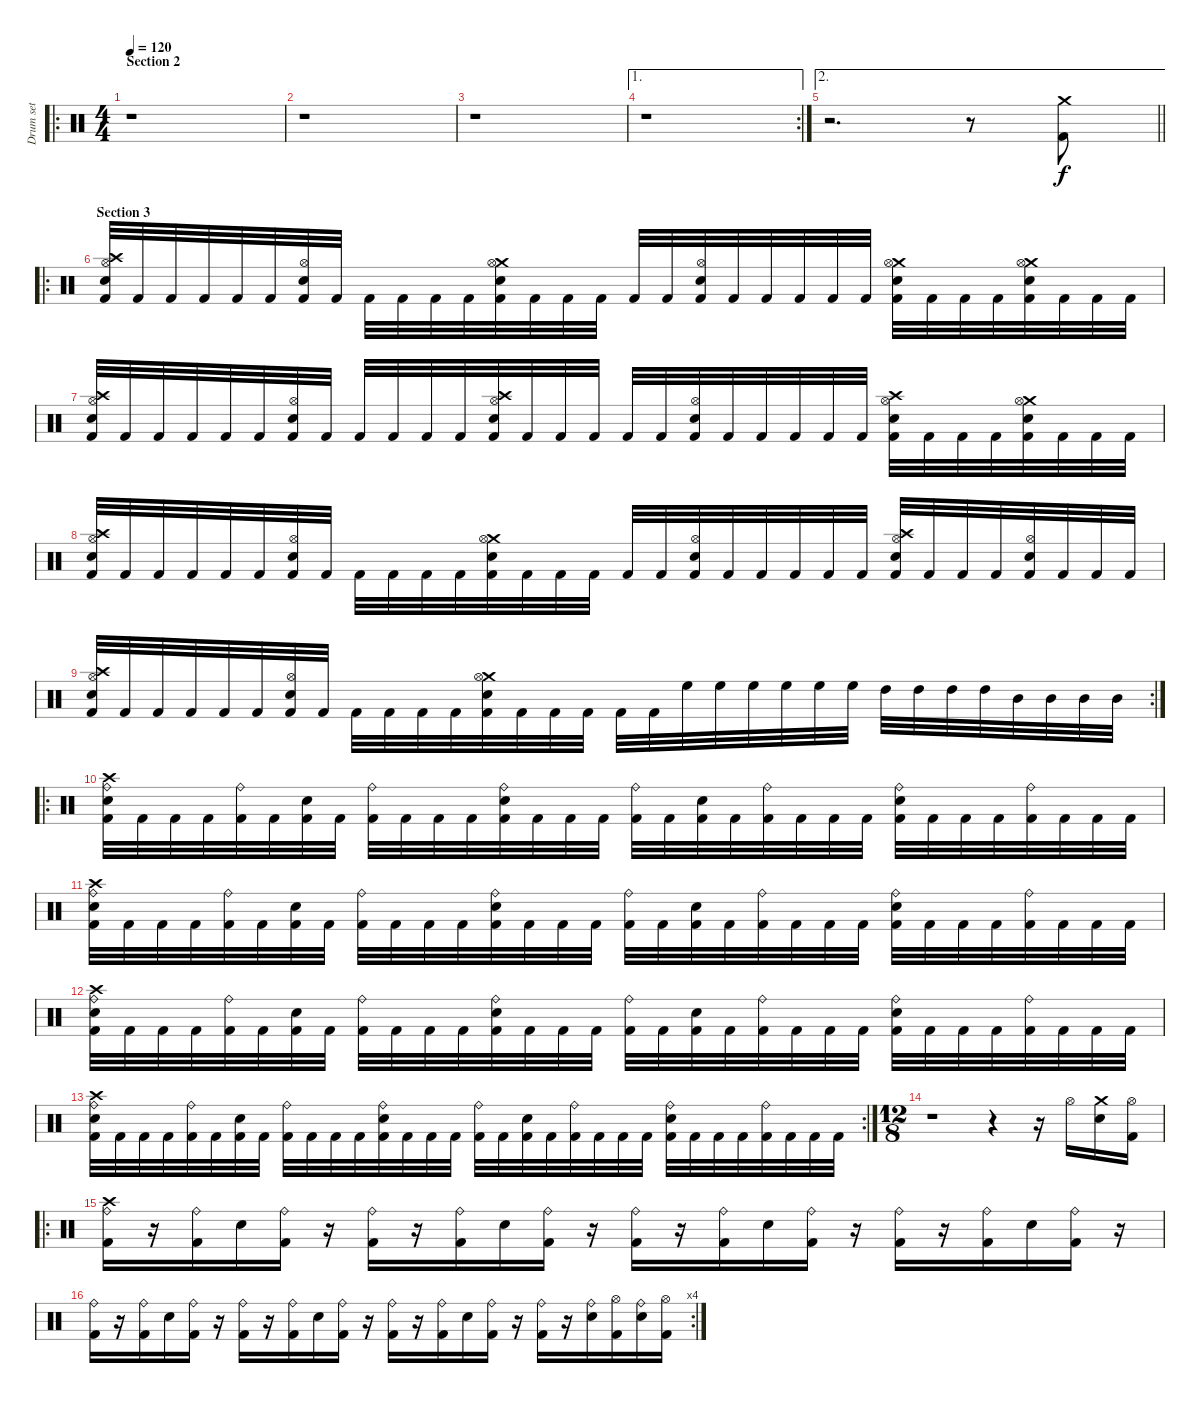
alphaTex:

\track ("Drum set" "Drum set") {instrument percussion}
\staff {score}
\articulation defaults
\ro
\ts (4 4)
\section ("" "Section 2")
\tempo 120
\clef neutral
\ks c
r.1{dy f} |
r.1 |
r.1 |
\ae 1
\rc 2
r.1 |
\ae 2
\barLineRight lightlight
r.2{d} r.8 ("Crash medium (hit)" "Kick (hit) 2").8 |
\ro
\section ("" "Section 3")
("Crash high (hit)" "Hi-Hat (open)" "Snare (hit) 2" "Kick (hit) 2").32 "Kick (hit) 2".32 "Kick (hit) 2".32 "Kick (hit) 2".32 "Kick (hit) 2".32 "Kick (hit) 2".32 ("Hi-Hat (open)" "Snare (hit) 2" "Kick (hit) 2").32 "Kick (hit) 2".32 "Kick (hit) 2".32 "Kick (hit) 2".32 "Kick (hit) 2".32 "Kick (hit) 2".32 ("Crash medium (hit)" "Hi-Hat (open)" "Snare (hit) 2" "Kick (hit) 2").32 "Kick (hit) 2".32 "Kick (hit) 2".32 "Kick (hit) 2".32 "Kick (hit) 2".32 "Kick (hit) 2".32 ("Hi-Hat (open)" "Snare (hit) 2" "Kick (hit) 2").32 "Kick (hit) 2".32 "Kick (hit) 2".32 "Kick (hit) 2".32 "Kick (hit) 2".32 "Kick (hit) 2".32 ("Crash medium (hit)" "Hi-Hat (open)" "Snare (hit) 2" "Kick (hit) 2").32 "Kick (hit) 2".32 "Kick (hit) 2".32 "Kick (hit) 2".32 ("Crash medium (hit)" "Hi-Hat (open)" "Snare (hit) 2" "Kick (hit) 2").32 "Kick (hit) 2".32 "Kick (hit) 2".32 "Kick (hit) 2".32 |
("Crash high (hit)" "Hi-Hat (open)" "Snare (hit) 2" "Kick (hit) 2").32 "Kick (hit) 2".32 "Kick (hit) 2".32 "Kick (hit) 2".32 "Kick (hit) 2".32 "Kick (hit) 2".32 ("Hi-Hat (open)" "Snare (hit) 2" "Kick (hit) 2").32 "Kick (hit) 2".32 "Kick (hit) 2".32 "Kick (hit) 2".32 "Kick (hit) 2".32 "Kick (hit) 2".32 ("Crash high (hit)" "Hi-Hat (open)" "Snare (hit) 2" "Kick (hit) 2").32 "Kick (hit) 2".32 "Kick (hit) 2".32 "Kick (hit) 2".32 "Kick (hit) 2".32 "Kick (hit) 2".32 ("Hi-Hat (open)" "Snare (hit) 2" "Kick (hit) 2").32 "Kick (hit) 2".32 "Kick (hit) 2".32 "Kick (hit) 2".32 "Kick (hit) 2".32 "Kick (hit) 2".32 ("Crash high (hit)" "Hi-Hat (open)" "Snare (hit) 2" "Kick (hit) 2").32 "Kick (hit) 2".32 "Kick (hit) 2".32 "Kick (hit) 2".32 ("Crash medium (hit)" "Hi-Hat (open)" "Snare (hit) 2" "Kick (hit) 2").32 "Kick (hit) 2".32 "Kick (hit) 2".32 "Kick (hit) 2".32 |
("Crash high (hit)" "Hi-Hat (open)" "Snare (hit) 2" "Kick (hit) 2").32 "Kick (hit) 2".32 "Kick (hit) 2".32 "Kick (hit) 2".32 "Kick (hit) 2".32 "Kick (hit) 2".32 ("Hi-Hat (open)" "Snare (hit) 2" "Kick (hit) 2").32 "Kick (hit) 2".32 "Kick (hit) 2".32 "Kick (hit) 2".32 "Kick (hit) 2".32 "Kick (hit) 2".32 ("Crash medium (hit)" "Hi-Hat (open)" "Snare (hit) 2" "Kick (hit) 2").32 "Kick (hit) 2".32 "Kick (hit) 2".32 "Kick (hit) 2".32 "Kick (hit) 2".32 "Kick (hit) 2".32 ("Hi-Hat (open)" "Snare (hit) 2" "Kick (hit) 2").32 "Kick (hit) 2".32 "Kick (hit) 2".32 "Kick (hit) 2".32 "Kick (hit) 2".32 "Kick (hit) 2".32 ("Crash high (hit)" "Hi-Hat (open)" "Snare (hit) 2" "Kick (hit) 2").32 "Kick (hit) 2".32 "Kick (hit) 2".32 "Kick (hit) 2".32 ("Hi-Hat (open)" "Snare (hit) 2" "Kick (hit) 2").32 "Kick (hit) 2".32 "Kick (hit) 2".32 "Kick (hit) 2".32 |
\rc 2
("Crash high (hit)" "Hi-Hat (open)" "Snare (hit) 2" "Kick (hit) 2").32 "Kick (hit) 2".32 "Kick (hit) 2".32 "Kick (hit) 2".32 "Kick (hit) 2".32 "Kick (hit) 2".32 ("Hi-Hat (open)" "Snare (hit) 2" "Kick (hit) 2").32 "Kick (hit) 2".32 "Kick (hit) 2".32 "Kick (hit) 2".32 "Kick (hit) 2".32 "Kick (hit) 2".32 ("Crash medium (hit)" "Hi-Hat (open)" "Snare (hit) 2" "Kick (hit) 2").32 "Kick (hit) 2".32 "Kick (hit) 2".32 "Kick (hit) 2".32 "Kick (hit) 2".32 "Kick (hit) 2".32 "High Floor Tom (hit)".32 "High Floor Tom (hit)".32 "High Floor Tom (hit)".32 "High Floor Tom (hit)".32 "High Floor Tom (hit)".32 "High Floor Tom (hit)".32 "High Tom (hit)".32 "High Tom (hit)".32 "High Tom (hit)".32 "High Tom (hit)".32 "Mid Tom (hit)".32 "Mid Tom (hit)".32 "Mid Tom (hit)".32 "Mid Tom (hit)".32 |
\ro
("Crash high (hit)" "Ride (bell)" "Snare (hit) 2" "Kick (hit) 2").32 "Kick (hit) 2".32 "Kick (hit) 2".32 "Kick (hit) 2".32 ("Ride (bell)" "Kick (hit) 2").32 "Kick (hit) 2".32 ("Snare (hit) 2" "Kick (hit) 2").32 "Kick (hit) 2".32 ("Ride (bell)" "Kick (hit) 2").32 "Kick (hit) 2".32 "Kick (hit) 2".32 "Kick (hit) 2".32 ("Ride (bell)" "Snare (hit) 2" "Kick (hit) 2").32 "Kick (hit) 2".32 "Kick (hit) 2".32 "Kick (hit) 2".32 ("Ride (bell)" "Kick (hit) 2").32 "Kick (hit) 2".32 ("Snare (hit) 2" "Kick (hit) 2").32 "Kick (hit) 2".32 ("Ride (bell)" "Kick (hit) 2").32 "Kick (hit) 2".32 "Kick (hit) 2".32 "Kick (hit) 2".32 ("Ride (bell)" "Snare (hit) 2" "Kick (hit) 2").32 "Kick (hit) 2".32 "Kick (hit) 2".32 "Kick (hit) 2".32 ("Ride (bell)" "Kick (hit) 2").32 "Kick (hit) 2".32 "Kick (hit) 2".32 "Kick (hit) 2".32 |
("Crash high (hit)" "Ride (bell)" "Snare (hit) 2" "Kick (hit) 2").32 "Kick (hit) 2".32 "Kick (hit) 2".32 "Kick (hit) 2".32 ("Ride (bell)" "Kick (hit) 2").32 "Kick (hit) 2".32 ("Snare (hit) 2" "Kick (hit) 2").32 "Kick (hit) 2".32 ("Ride (bell)" "Kick (hit) 2").32 "Kick (hit) 2".32 "Kick (hit) 2".32 "Kick (hit) 2".32 ("Ride (bell)" "Snare (hit) 2" "Kick (hit) 2").32 "Kick (hit) 2".32 "Kick (hit) 2".32 "Kick (hit) 2".32 ("Ride (bell)" "Kick (hit) 2").32 "Kick (hit) 2".32 ("Snare (hit) 2" "Kick (hit) 2").32 "Kick (hit) 2".32 ("Ride (bell)" "Kick (hit) 2").32 "Kick (hit) 2".32 "Kick (hit) 2".32 "Kick (hit) 2".32 ("Ride (bell)" "Snare (hit) 2" "Kick (hit) 2").32 "Kick (hit) 2".32 "Kick (hit) 2".32 "Kick (hit) 2".32 ("Ride (bell)" "Kick (hit) 2").32 "Kick (hit) 2".32 "Kick (hit) 2".32 "Kick (hit) 2".32 |
("Crash high (hit)" "Ride (bell)" "Snare (hit) 2" "Kick (hit) 2").32 "Kick (hit) 2".32 "Kick (hit) 2".32 "Kick (hit) 2".32 ("Ride (bell)" "Kick (hit) 2").32 "Kick (hit) 2".32 ("Snare (hit) 2" "Kick (hit) 2").32 "Kick (hit) 2".32 ("Ride (bell)" "Kick (hit) 2").32 "Kick (hit) 2".32 "Kick (hit) 2".32 "Kick (hit) 2".32 ("Ride (bell)" "Snare (hit) 2" "Kick (hit) 2").32 "Kick (hit) 2".32 "Kick (hit) 2".32 "Kick (hit) 2".32 ("Ride (bell)" "Kick (hit) 2").32 "Kick (hit) 2".32 ("Snare (hit) 2" "Kick (hit) 2").32 "Kick (hit) 2".32 ("Ride (bell)" "Kick (hit) 2").32 "Kick (hit) 2".32 "Kick (hit) 2".32 "Kick (hit) 2".32 ("Ride (bell)" "Snare (hit) 2" "Kick (hit) 2").32 "Kick (hit) 2".32 "Kick (hit) 2".32 "Kick (hit) 2".32 ("Ride (bell)" "Kick (hit) 2").32 "Kick (hit) 2".32 "Kick (hit) 2".32 "Kick (hit) 2".32 |
\rc 2
("Crash high (hit)" "Ride (bell)" "Snare (hit) 2" "Kick (hit) 2").32 "Kick (hit) 2".32 "Kick (hit) 2".32 "Kick (hit) 2".32 ("Ride (bell)" "Kick (hit) 2").32 "Kick (hit) 2".32 ("Snare (hit) 2" "Kick (hit) 2").32 "Kick (hit) 2".32 ("Ride (bell)" "Kick (hit) 2").32 "Kick (hit) 2".32 "Kick (hit) 2".32 "Kick (hit) 2".32 ("Ride (bell)" "Snare (hit) 2" "Kick (hit) 2").32 "Kick (hit) 2".32 "Kick (hit) 2".32 "Kick (hit) 2".32 ("Ride (bell)" "Kick (hit) 2").32 "Kick (hit) 2".32 ("Snare (hit) 2" "Kick (hit) 2").32 "Kick (hit) 2".32 ("Ride (bell)" "Kick (hit) 2").32 "Kick (hit) 2".32 "Kick (hit) 2".32 "Kick (hit) 2".32 ("Ride (bell)" "Snare (hit) 2" "Kick (hit) 2").32 "Kick (hit) 2".32 "Kick (hit) 2".32 "Kick (hit) 2".32 ("Ride (bell)" "Kick (hit) 2").32 "Kick (hit) 2".32 "Kick (hit) 2".32 "Kick (hit) 2".32 |
\ts (12 8)
r.1 r.4 r.16 "Hi-Hat (open)".16 ("Crash medium (hit)" "Snare (hit) 2").16 ("Hi-Hat (open)" "Kick (hit) 2").16 |
\ro
("Crash high (hit)" "Ride (bell)" "Kick (hit) 2").16 r.16 ("Ride (bell)" "Kick (hit) 2").16 "Snare (hit) 2".16 ("Ride (bell)" "Kick (hit) 2").16 r.16 ("Ride (bell)" "Kick (hit) 2").16 r.16 ("Ride (bell)" "Kick (hit) 2").16 "Snare (hit) 2".16 ("Ride (bell)" "Kick (hit) 2").16 r.16 ("Ride (bell)" "Kick (hit) 2").16 r.16 ("Ride (bell)" "Kick (hit) 2").16 "Snare (hit) 2".16 ("Ride (bell)" "Kick (hit) 2").16 r.16 ("Ride (bell)" "Kick (hit) 2").16 r.16 ("Ride (bell)" "Kick (hit) 2").16 "Snare (hit) 2".16 ("Ride (bell)" "Kick (hit) 2").16 r.16 |
\rc 4
("Ride (bell)" "Kick (hit) 2").16 r.16 ("Ride (bell)" "Kick (hit) 2").16 "Snare (hit) 2".16 ("Ride (bell)" "Kick (hit) 2").16 r.16 ("Ride (bell)" "Kick (hit) 2").16 r.16 ("Ride (bell)" "Kick (hit) 2").16 "Snare (hit) 2".16 ("Ride (bell)" "Kick (hit) 2").16 r.16 ("Ride (bell)" "Kick (hit) 2").16 r.16 ("Ride (bell)" "Kick (hit) 2").16 "Snare (hit) 2".16 ("Ride (bell)" "Kick (hit) 2").16 r.16 ("Ride (bell)" "Kick (hit) 2").16 r.16 ("Ride (bell)" "Snare (hit) 2").16 ("Hi-Hat (open)" "Kick (hit) 2").16 ("Ride (bell)" "Snare (hit) 2").16 ("Hi-Hat (open)" "Kick (hit) 2").16
